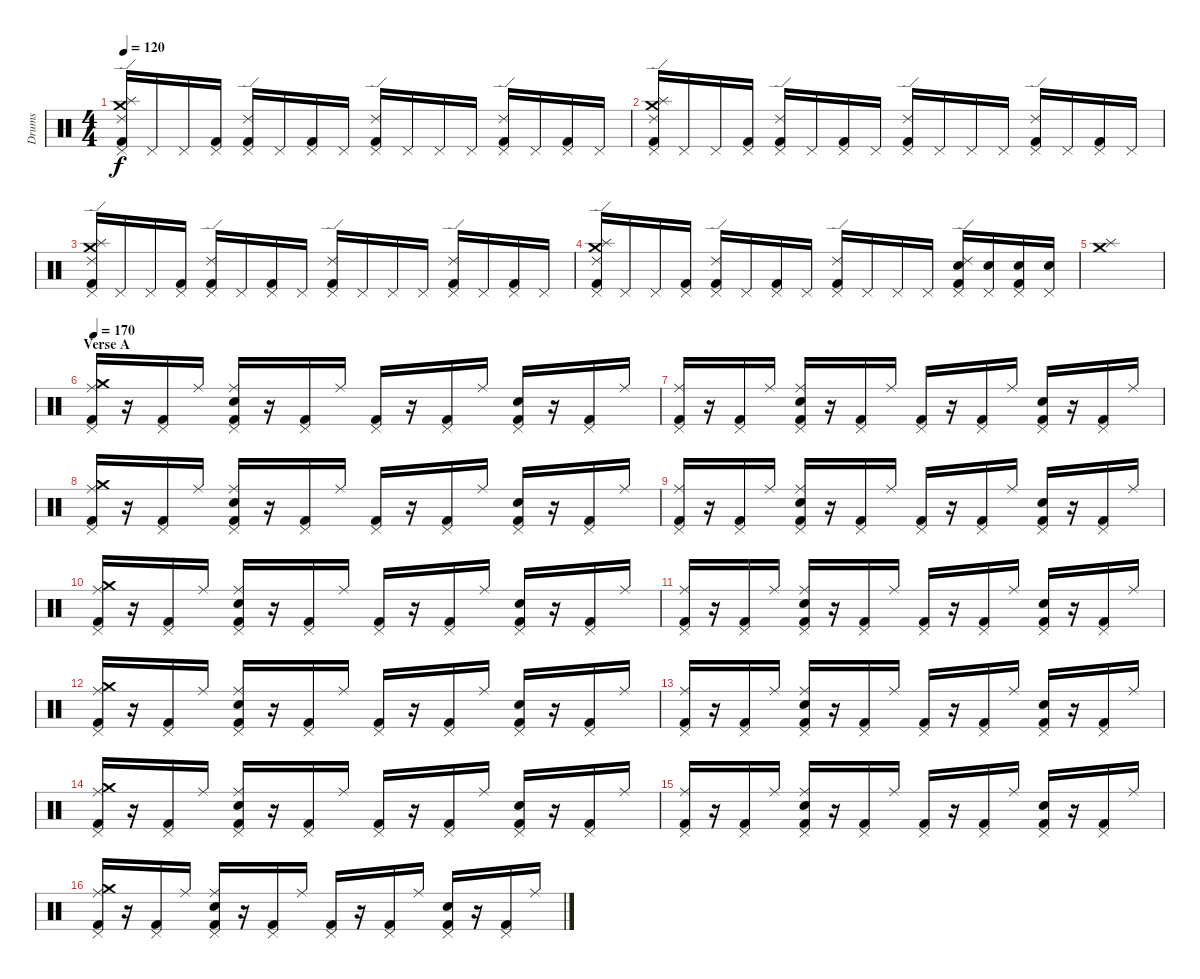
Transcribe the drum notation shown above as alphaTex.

\track ("Drums" "Drums") {instrument percussion}
\staff {score}
\articulation defaults
\ts (4 4)
\tempo 120
\clef neutral
\ks c
("Kick (hit) 2" "Crash medium (hit)" "Splash (hit)" "Pedal Hi-Hat (hit)" "Ride (edge) 2").16{dy f} "Pedal Hi-Hat (hit)".16 "Pedal Hi-Hat (hit)".16 ("Kick (hit) 2" "Pedal Hi-Hat (hit)").16 ("Kick (hit) 2" "Pedal Hi-Hat (hit)" "Ride (edge) 2").16 "Pedal Hi-Hat (hit)".16 ("Kick (hit) 2" "Pedal Hi-Hat (hit)").16 "Pedal Hi-Hat (hit)".16 ("Kick (hit) 2" "Pedal Hi-Hat (hit)" "Ride (edge) 2").16 "Pedal Hi-Hat (hit)".16 "Pedal Hi-Hat (hit)".16 "Pedal Hi-Hat (hit)".16 ("Kick (hit) 2" "Pedal Hi-Hat (hit)" "Ride (edge) 2").16 "Pedal Hi-Hat (hit)".16 ("Kick (hit) 2" "Pedal Hi-Hat (hit)").16 "Pedal Hi-Hat (hit)".16 |
("Kick (hit) 2" "Crash medium (hit)" "Splash (hit)" "Pedal Hi-Hat (hit)" "Ride (edge) 2").16 "Pedal Hi-Hat (hit)".16 "Pedal Hi-Hat (hit)".16 ("Kick (hit) 2" "Pedal Hi-Hat (hit)").16 ("Kick (hit) 2" "Pedal Hi-Hat (hit)" "Ride (edge) 2").16 "Pedal Hi-Hat (hit)".16 ("Kick (hit) 2" "Pedal Hi-Hat (hit)").16 "Pedal Hi-Hat (hit)".16 ("Kick (hit) 2" "Pedal Hi-Hat (hit)" "Ride (edge) 2").16 "Pedal Hi-Hat (hit)".16 "Pedal Hi-Hat (hit)".16 "Pedal Hi-Hat (hit)".16 ("Kick (hit) 2" "Pedal Hi-Hat (hit)" "Ride (edge) 2").16 "Pedal Hi-Hat (hit)".16 ("Kick (hit) 2" "Pedal Hi-Hat (hit)").16 "Pedal Hi-Hat (hit)".16 |
("Kick (hit) 2" "Crash medium (hit)" "Splash (hit)" "Pedal Hi-Hat (hit)" "Ride (edge) 2").16 "Pedal Hi-Hat (hit)".16 "Pedal Hi-Hat (hit)".16 ("Kick (hit) 2" "Pedal Hi-Hat (hit)").16 ("Kick (hit) 2" "Pedal Hi-Hat (hit)" "Ride (edge) 2").16 "Pedal Hi-Hat (hit)".16 ("Kick (hit) 2" "Pedal Hi-Hat (hit)").16 "Pedal Hi-Hat (hit)".16 ("Kick (hit) 2" "Pedal Hi-Hat (hit)" "Ride (edge) 2").16 "Pedal Hi-Hat (hit)".16 "Pedal Hi-Hat (hit)".16 "Pedal Hi-Hat (hit)".16 ("Kick (hit) 2" "Pedal Hi-Hat (hit)" "Ride (edge) 2").16 "Pedal Hi-Hat (hit)".16 ("Kick (hit) 2" "Pedal Hi-Hat (hit)").16 "Pedal Hi-Hat (hit)".16 |
("Kick (hit) 2" "Crash medium (hit)" "Splash (hit)" "Pedal Hi-Hat (hit)" "Ride (edge) 2").16 "Pedal Hi-Hat (hit)".16 "Pedal Hi-Hat (hit)".16 ("Kick (hit) 2" "Pedal Hi-Hat (hit)").16 ("Kick (hit) 2" "Pedal Hi-Hat (hit)" "Ride (edge) 2").16 "Pedal Hi-Hat (hit)".16 ("Kick (hit) 2" "Pedal Hi-Hat (hit)").16 "Pedal Hi-Hat (hit)".16 ("Kick (hit) 2" "Pedal Hi-Hat (hit)" "Ride (edge) 2").16 "Pedal Hi-Hat (hit)".16 "Pedal Hi-Hat (hit)".16 "Pedal Hi-Hat (hit)".16 ("Kick (hit) 2" "Snare (hit) 2" "Pedal Hi-Hat (hit)" "Ride (edge) 2").16 ("Snare (hit) 2" "Pedal Hi-Hat (hit)").16 ("Kick (hit) 2" "Snare (hit) 2" "Pedal Hi-Hat (hit)").16 ("Snare (hit) 2" "Pedal Hi-Hat (hit)").16 |
("Crash medium (hit)" "Splash (hit)").1 |
\section ("" "Verse A")
\tempo 170
("Kick (hit) 2" "Pedal Hi-Hat (hit)" "Ride (middle)" "Crash medium (hit)").16 r.16 ("Kick (hit) 2" "Pedal Hi-Hat (hit)").16 "Ride (middle)".16 ("Kick (hit) 2" "Pedal Hi-Hat (hit)" "Snare (hit) 2" "Ride (middle)").16 r.16 ("Kick (hit) 2" "Pedal Hi-Hat (hit)").16 "Ride (middle)".16 ("Kick (hit) 2" "Pedal Hi-Hat (hit)").16 r.16 ("Kick (hit) 2" "Pedal Hi-Hat (hit)").16 "Ride (middle)".16 ("Kick (hit) 2" "Pedal Hi-Hat (hit)" "Snare (hit) 2").16 r.16 ("Kick (hit) 2" "Pedal Hi-Hat (hit)").16 "Ride (middle)".16 |
("Kick (hit) 2" "Pedal Hi-Hat (hit)" "Ride (middle)").16 r.16 ("Kick (hit) 2" "Pedal Hi-Hat (hit)").16 "Ride (middle)".16 ("Kick (hit) 2" "Pedal Hi-Hat (hit)" "Snare (hit) 2" "Ride (middle)").16 r.16 ("Kick (hit) 2" "Pedal Hi-Hat (hit)").16 "Ride (middle)".16 ("Kick (hit) 2" "Pedal Hi-Hat (hit)").16 r.16 ("Kick (hit) 2" "Pedal Hi-Hat (hit)").16 "Ride (middle)".16 ("Kick (hit) 2" "Pedal Hi-Hat (hit)" "Snare (hit) 2").16 r.16 ("Kick (hit) 2" "Pedal Hi-Hat (hit)").16 "Ride (middle)".16 |
("Kick (hit) 2" "Pedal Hi-Hat (hit)" "Ride (middle)" "Crash medium (hit)").16 r.16 ("Kick (hit) 2" "Pedal Hi-Hat (hit)").16 "Ride (middle)".16 ("Kick (hit) 2" "Pedal Hi-Hat (hit)" "Snare (hit) 2" "Ride (middle)").16 r.16 ("Kick (hit) 2" "Pedal Hi-Hat (hit)").16 "Ride (middle)".16 ("Kick (hit) 2" "Pedal Hi-Hat (hit)").16 r.16 ("Kick (hit) 2" "Pedal Hi-Hat (hit)").16 "Ride (middle)".16 ("Kick (hit) 2" "Pedal Hi-Hat (hit)" "Snare (hit) 2").16 r.16 ("Kick (hit) 2" "Pedal Hi-Hat (hit)").16 "Ride (middle)".16 |
("Kick (hit) 2" "Pedal Hi-Hat (hit)" "Ride (middle)").16 r.16 ("Kick (hit) 2" "Pedal Hi-Hat (hit)").16 "Ride (middle)".16 ("Kick (hit) 2" "Pedal Hi-Hat (hit)" "Snare (hit) 2" "Ride (middle)").16 r.16 ("Kick (hit) 2" "Pedal Hi-Hat (hit)").16 "Ride (middle)".16 ("Kick (hit) 2" "Pedal Hi-Hat (hit)").16 r.16 ("Kick (hit) 2" "Pedal Hi-Hat (hit)").16 "Ride (middle)".16 ("Kick (hit) 2" "Pedal Hi-Hat (hit)" "Snare (hit) 2").16 r.16 ("Kick (hit) 2" "Pedal Hi-Hat (hit)").16 "Ride (middle)".16 |
("Kick (hit) 2" "Pedal Hi-Hat (hit)" "Ride (middle)" "Crash medium (hit)").16 r.16 ("Kick (hit) 2" "Pedal Hi-Hat (hit)").16 "Ride (middle)".16 ("Kick (hit) 2" "Pedal Hi-Hat (hit)" "Snare (hit) 2" "Ride (middle)").16 r.16 ("Kick (hit) 2" "Pedal Hi-Hat (hit)").16 "Ride (middle)".16 ("Kick (hit) 2" "Pedal Hi-Hat (hit)").16 r.16 ("Kick (hit) 2" "Pedal Hi-Hat (hit)").16 "Ride (middle)".16 ("Kick (hit) 2" "Pedal Hi-Hat (hit)" "Snare (hit) 2").16 r.16 ("Kick (hit) 2" "Pedal Hi-Hat (hit)").16 "Ride (middle)".16 |
("Kick (hit) 2" "Pedal Hi-Hat (hit)" "Ride (middle)").16 r.16 ("Kick (hit) 2" "Pedal Hi-Hat (hit)").16 "Ride (middle)".16 ("Kick (hit) 2" "Pedal Hi-Hat (hit)" "Snare (hit) 2" "Ride (middle)").16 r.16 ("Kick (hit) 2" "Pedal Hi-Hat (hit)").16 "Ride (middle)".16 ("Kick (hit) 2" "Pedal Hi-Hat (hit)").16 r.16 ("Kick (hit) 2" "Pedal Hi-Hat (hit)").16 "Ride (middle)".16 ("Kick (hit) 2" "Pedal Hi-Hat (hit)" "Snare (hit) 2").16 r.16 ("Kick (hit) 2" "Pedal Hi-Hat (hit)").16 "Ride (middle)".16 |
("Kick (hit) 2" "Pedal Hi-Hat (hit)" "Ride (middle)" "Crash medium (hit)").16 r.16 ("Kick (hit) 2" "Pedal Hi-Hat (hit)").16 "Ride (middle)".16 ("Kick (hit) 2" "Pedal Hi-Hat (hit)" "Snare (hit) 2" "Ride (middle)").16 r.16 ("Kick (hit) 2" "Pedal Hi-Hat (hit)").16 "Ride (middle)".16 ("Kick (hit) 2" "Pedal Hi-Hat (hit)").16 r.16 ("Kick (hit) 2" "Pedal Hi-Hat (hit)").16 "Ride (middle)".16 ("Kick (hit) 2" "Pedal Hi-Hat (hit)" "Snare (hit) 2").16 r.16 ("Kick (hit) 2" "Pedal Hi-Hat (hit)").16 "Ride (middle)".16 |
("Kick (hit) 2" "Pedal Hi-Hat (hit)" "Ride (middle)").16 r.16 ("Kick (hit) 2" "Pedal Hi-Hat (hit)").16 "Ride (middle)".16 ("Kick (hit) 2" "Pedal Hi-Hat (hit)" "Snare (hit) 2" "Ride (middle)").16 r.16 ("Kick (hit) 2" "Pedal Hi-Hat (hit)").16 "Ride (middle)".16 ("Kick (hit) 2" "Pedal Hi-Hat (hit)").16 r.16 ("Kick (hit) 2" "Pedal Hi-Hat (hit)").16 "Ride (middle)".16 ("Kick (hit) 2" "Pedal Hi-Hat (hit)" "Snare (hit) 2").16 r.16 ("Kick (hit) 2" "Pedal Hi-Hat (hit)").16 "Ride (middle)".16 |
("Kick (hit) 2" "Pedal Hi-Hat (hit)" "Ride (middle)" "Crash medium (hit)").16 r.16 ("Kick (hit) 2" "Pedal Hi-Hat (hit)").16 "Ride (middle)".16 ("Kick (hit) 2" "Pedal Hi-Hat (hit)" "Snare (hit) 2" "Ride (middle)").16 r.16 ("Kick (hit) 2" "Pedal Hi-Hat (hit)").16 "Ride (middle)".16 ("Kick (hit) 2" "Pedal Hi-Hat (hit)").16 r.16 ("Kick (hit) 2" "Pedal Hi-Hat (hit)").16 "Ride (middle)".16 ("Kick (hit) 2" "Pedal Hi-Hat (hit)" "Snare (hit) 2").16 r.16 ("Kick (hit) 2" "Pedal Hi-Hat (hit)").16 "Ride (middle)".16 |
("Kick (hit) 2" "Pedal Hi-Hat (hit)" "Ride (middle)").16 r.16 ("Kick (hit) 2" "Pedal Hi-Hat (hit)").16 "Ride (middle)".16 ("Kick (hit) 2" "Pedal Hi-Hat (hit)" "Snare (hit) 2" "Ride (middle)").16 r.16 ("Kick (hit) 2" "Pedal Hi-Hat (hit)").16 "Ride (middle)".16 ("Kick (hit) 2" "Pedal Hi-Hat (hit)").16 r.16 ("Kick (hit) 2" "Pedal Hi-Hat (hit)").16 "Ride (middle)".16 ("Kick (hit) 2" "Pedal Hi-Hat (hit)" "Snare (hit) 2").16 r.16 ("Kick (hit) 2" "Pedal Hi-Hat (hit)").16 "Ride (middle)".16 |
("Kick (hit) 2" "Pedal Hi-Hat (hit)" "Ride (middle)" "Crash medium (hit)").16 r.16 ("Kick (hit) 2" "Pedal Hi-Hat (hit)").16 "Ride (middle)".16 ("Kick (hit) 2" "Pedal Hi-Hat (hit)" "Snare (hit) 2" "Ride (middle)").16 r.16 ("Kick (hit) 2" "Pedal Hi-Hat (hit)").16 "Ride (middle)".16 ("Kick (hit) 2" "Pedal Hi-Hat (hit)").16 r.16 ("Kick (hit) 2" "Pedal Hi-Hat (hit)").16 "Ride (middle)".16 ("Kick (hit) 2" "Pedal Hi-Hat (hit)" "Snare (hit) 2").16 r.16 ("Kick (hit) 2" "Pedal Hi-Hat (hit)").16 "Ride (middle)".16
